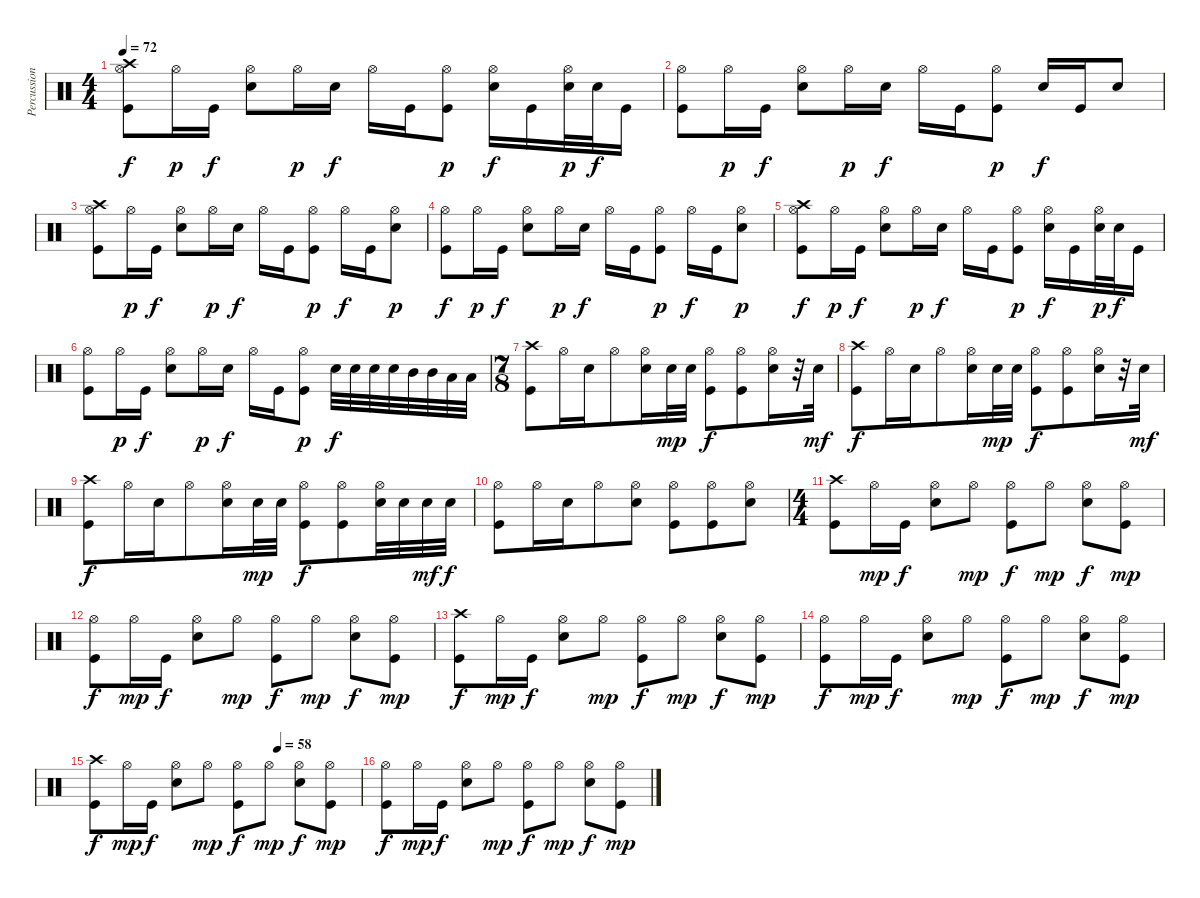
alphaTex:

\track ("Percussion" "Percussion") {instrument percussion}
\staff {score}
\articulation defaults
\ts (4 4)
\tempo 72
\clef neutral
\ks c
("Crash high (hit)" "Hi-Hat (open)" "Kick (hit)").8{dy f} "Hi-Hat (open)".16{dy p} "Kick (hit)".16{dy f} ("Hi-Hat (open)" "Electric Snare (hit)").8 "Hi-Hat (open)".16{dy p} "Electric Snare (hit)".16{dy f} "Hi-Hat (open)".16 "Kick (hit)".16 ("Hi-Hat (open)" "Kick (hit)").8{dy p} ("Hi-Hat (open)" "Electric Snare (hit)").16{dy f} "Kick (hit)".16 ("Hi-Hat (open)" "Electric Snare (hit)").32{dy p} "Electric Snare (hit)".32{dy f} "Kick (hit)".16 |
("Hi-Hat (open)" "Kick (hit)").8 "Hi-Hat (open)".16{dy p} "Kick (hit)".16{dy f} ("Hi-Hat (open)" "Electric Snare (hit)").8 "Hi-Hat (open)".16{dy p} "Electric Snare (hit)".16{dy f} "Hi-Hat (open)".16 "Kick (hit)".16 ("Hi-Hat (open)" "Kick (hit)").8{dy p} "Electric Snare (hit)".16{dy f} "Kick (hit)".16 "Electric Snare (hit)".8 |
("Crash high (hit)" "Hi-Hat (open)" "Kick (hit)").8 "Hi-Hat (open)".16{dy p} "Kick (hit)".16{dy f} ("Hi-Hat (open)" "Electric Snare (hit)").8 "Hi-Hat (open)".16{dy p} "Electric Snare (hit)".16{dy f} "Hi-Hat (open)".16 "Kick (hit)".16 ("Hi-Hat (open)" "Kick (hit)").8{dy p} "Hi-Hat (open)".16{dy f} "Kick (hit)".16 ("Hi-Hat (open)" "Electric Snare (hit)").8{dy p} |
("Hi-Hat (open)" "Kick (hit)").8{dy f} "Hi-Hat (open)".16{dy p} "Kick (hit)".16{dy f} ("Hi-Hat (open)" "Electric Snare (hit)").8 "Hi-Hat (open)".16{dy p} "Electric Snare (hit)".16{dy f} "Hi-Hat (open)".16 "Kick (hit)".16 ("Hi-Hat (open)" "Kick (hit)").8{dy p} "Hi-Hat (open)".16{dy f} "Kick (hit)".16 ("Hi-Hat (open)" "Electric Snare (hit)").8{dy p} |
("Crash high (hit)" "Hi-Hat (open)" "Kick (hit)").8{dy f} "Hi-Hat (open)".16{dy p} "Kick (hit)".16{dy f} ("Hi-Hat (open)" "Electric Snare (hit)").8 "Hi-Hat (open)".16{dy p} "Electric Snare (hit)".16{dy f} "Hi-Hat (open)".16 "Kick (hit)".16 ("Hi-Hat (open)" "Kick (hit)").8{dy p} ("Hi-Hat (open)" "Electric Snare (hit)").16{dy f} "Kick (hit)".16 ("Hi-Hat (open)" "Electric Snare (hit)").32{dy p} "Electric Snare (hit)".32{dy f} "Kick (hit)".16 |
("Hi-Hat (open)" "Kick (hit)").8 "Hi-Hat (open)".16{dy p} "Kick (hit)".16{dy f} ("Hi-Hat (open)" "Electric Snare (hit)").8 "Hi-Hat (open)".16{dy p} "Electric Snare (hit)".16{dy f} "Hi-Hat (open)".16 "Kick (hit)".16 ("Hi-Hat (open)" "Kick (hit)").8{dy p} "Electric Snare (hit)".32{dy f} "Electric Snare (hit)".32 "Electric Snare (hit)".32 "Electric Snare (hit)".32 "Mid Tom (hit)".32 "Mid Tom (hit)".32 "Low Tom (hit)".32 "Low Tom (hit)".32 |
\ts (7 8)
("Crash high (hit)" "Kick (hit)").8 "Hi-Hat (open)".16 "Electric Snare (hit)".16 "Hi-Hat (open)".8 ("Hi-Hat (open)" "Electric Snare (hit)").16 "Electric Snare (hit)".32{dy mp} "Electric Snare (hit)".32 ("Hi-Hat (open)" "Kick (hit)").8{dy f} ("Hi-Hat (open)" "Kick (hit)").8 ("Hi-Hat (open)" "Electric Snare (hit)").16 r.32 "Electric Snare (hit)".32{dy mf} |
("Crash high (hit)" "Kick (hit)").8{dy f} "Hi-Hat (open)".16 "Electric Snare (hit)".16 "Hi-Hat (open)".8 ("Hi-Hat (open)" "Electric Snare (hit)").16 "Electric Snare (hit)".32{dy mp} "Electric Snare (hit)".32 ("Hi-Hat (open)" "Kick (hit)").8{dy f} ("Hi-Hat (open)" "Kick (hit)").8 ("Hi-Hat (open)" "Electric Snare (hit)").16 r.32 "Electric Snare (hit)".32{dy mf} |
("Crash high (hit)" "Kick (hit)").8{dy f} "Hi-Hat (open)".16 "Electric Snare (hit)".16 "Hi-Hat (open)".8 ("Hi-Hat (open)" "Electric Snare (hit)").16 "Electric Snare (hit)".32{dy mp} "Electric Snare (hit)".32 ("Hi-Hat (open)" "Kick (hit)").8{dy f} ("Hi-Hat (open)" "Kick (hit)").8 ("Hi-Hat (open)" "Electric Snare (hit)").32 "Electric Snare (hit)".32 "Electric Snare (hit)".32{dy mf} "Electric Snare (hit)".32{dy f} |
("Hi-Hat (open)" "Kick (hit)").8 "Hi-Hat (open)".16 "Electric Snare (hit)".16 "Hi-Hat (open)".8 ("Hi-Hat (open)" "Electric Snare (hit)").8 ("Hi-Hat (open)" "Kick (hit)").8 ("Hi-Hat (open)" "Kick (hit)").8 ("Hi-Hat (open)" "Electric Snare (hit)").8 |
\ts (4 4)
("Crash high (hit)" "Kick (hit)").8 "Hi-Hat (open)".16{dy mp} "Kick (hit)".16{dy f} ("Hi-Hat (open)" "Electric Snare (hit)").8 "Hi-Hat (open)".8{dy mp} ("Hi-Hat (open)" "Kick (hit)").8{dy f} "Hi-Hat (open)".8{dy mp} ("Hi-Hat (open)" "Electric Snare (hit)").8{dy f} ("Hi-Hat (open)" "Kick (hit)").8{dy mp} |
("Hi-Hat (open)" "Kick (hit)").8{dy f} "Hi-Hat (open)".16{dy mp} "Kick (hit)".16{dy f} ("Hi-Hat (open)" "Electric Snare (hit)").8 "Hi-Hat (open)".8{dy mp} ("Hi-Hat (open)" "Kick (hit)").8{dy f} "Hi-Hat (open)".8{dy mp} ("Hi-Hat (open)" "Electric Snare (hit)").8{dy f} ("Hi-Hat (open)" "Kick (hit)").8{dy mp} |
("Crash high (hit)" "Kick (hit)").8{dy f} "Hi-Hat (open)".16{dy mp} "Kick (hit)".16{dy f} ("Hi-Hat (open)" "Electric Snare (hit)").8 "Hi-Hat (open)".8{dy mp} ("Hi-Hat (open)" "Kick (hit)").8{dy f} "Hi-Hat (open)".8{dy mp} ("Hi-Hat (open)" "Electric Snare (hit)").8{dy f} ("Hi-Hat (open)" "Kick (hit)").8{dy mp} |
("Hi-Hat (open)" "Kick (hit)").8{dy f} "Hi-Hat (open)".16{dy mp} "Kick (hit)".16{dy f} ("Hi-Hat (open)" "Electric Snare (hit)").8 "Hi-Hat (open)".8{dy mp} ("Hi-Hat (open)" "Kick (hit)").8{dy f} "Hi-Hat (open)".8{dy mp} ("Hi-Hat (open)" "Electric Snare (hit)").8{dy f} ("Hi-Hat (open)" "Kick (hit)").8{dy mp} |
\tempo (58 0.6875)
("Crash high (hit)" "Kick (hit)").8{dy f} "Hi-Hat (open)".16{dy mp} "Kick (hit)".16{dy f} ("Hi-Hat (open)" "Electric Snare (hit)").8 "Hi-Hat (open)".8{dy mp} ("Hi-Hat (open)" "Kick (hit)").8{dy f} "Hi-Hat (open)".8{dy mp} ("Hi-Hat (open)" "Electric Snare (hit)").8{dy f} ("Hi-Hat (open)" "Kick (hit)").8{dy mp} |
("Hi-Hat (open)" "Kick (hit)").8{dy f} "Hi-Hat (open)".16{dy mp} "Kick (hit)".16{dy f} ("Hi-Hat (open)" "Electric Snare (hit)").8 "Hi-Hat (open)".8{dy mp} ("Hi-Hat (open)" "Kick (hit)").8{dy f} "Hi-Hat (open)".8{dy mp} ("Hi-Hat (open)" "Electric Snare (hit)").8{dy f} ("Hi-Hat (open)" "Kick (hit)").8{dy mp}
